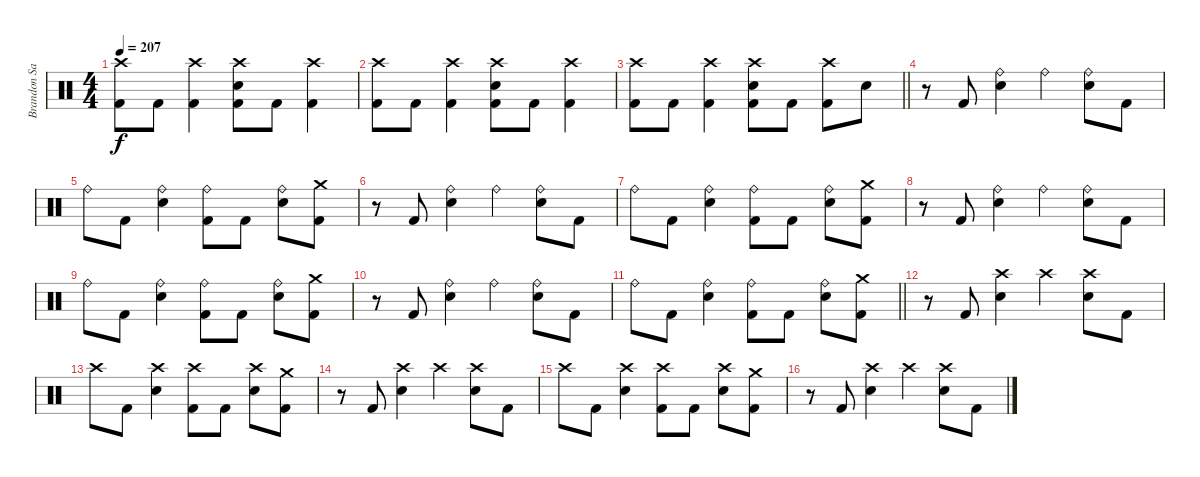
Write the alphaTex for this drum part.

\track ("Brandon Saller" "Brandon Sa") {instrument percussion}
\staff {score}
\articulation defaults
\ts (4 4)
\tempo 207
\clef neutral
\ks c
("Crash high (hit)" "Kick (hit) 2").8{dy f} "Kick (hit) 2".8 ("Crash high (hit)" "Kick (hit) 2").4 ("Crash high (hit)" "Electric Snare (hit)" "Kick (hit) 2").8 "Kick (hit) 2".8 ("Crash high (hit)" "Kick (hit) 2").4 |
("Crash high (hit)" "Kick (hit) 2").8 "Kick (hit) 2".8 ("Crash high (hit)" "Kick (hit) 2").4 ("Crash high (hit)" "Electric Snare (hit)" "Kick (hit) 2").8 "Kick (hit) 2".8 ("Crash high (hit)" "Kick (hit) 2").4 |
\barLineRight lightlight
("Crash high (hit)" "Kick (hit) 2").8 "Kick (hit) 2".8 ("Crash high (hit)" "Kick (hit) 2").4 ("Crash high (hit)" "Electric Snare (hit)" "Kick (hit) 2").8 "Kick (hit) 2".8 ("Crash high (hit)" "Kick (hit) 2").8 "Electric Snare (hit)".8 |
r.8 "Kick (hit) 2".8 ("Ride (bell)" "Electric Snare (hit)").4 "Ride (bell)".4 ("Ride (bell)" "Electric Snare (hit)").8 "Kick (hit) 2".8 |
"Ride (bell)".8 "Kick (hit) 2".8 ("Ride (bell)" "Electric Snare (hit)").4 ("Ride (bell)" "Kick (hit) 2").8 "Kick (hit) 2".8 ("Ride (bell)" "Electric Snare (hit)").8 ("Crash medium (hit)" "Kick (hit) 2").8 |
r.8 "Kick (hit) 2".8 ("Ride (bell)" "Electric Snare (hit)").4 "Ride (bell)".4 ("Ride (bell)" "Electric Snare (hit)").8 "Kick (hit) 2".8 |
"Ride (bell)".8 "Kick (hit) 2".8 ("Ride (bell)" "Electric Snare (hit)").4 ("Ride (bell)" "Kick (hit) 2").8 "Kick (hit) 2".8 ("Ride (bell)" "Electric Snare (hit)").8 ("Crash medium (hit)" "Kick (hit) 2").8 |
r.8 "Kick (hit) 2".8 ("Ride (bell)" "Electric Snare (hit)").4 "Ride (bell)".4 ("Ride (bell)" "Electric Snare (hit)").8 "Kick (hit) 2".8 |
"Ride (bell)".8 "Kick (hit) 2".8 ("Ride (bell)" "Electric Snare (hit)").4 ("Ride (bell)" "Kick (hit) 2").8 "Kick (hit) 2".8 ("Ride (bell)" "Electric Snare (hit)").8 ("Crash medium (hit)" "Kick (hit) 2").8 |
r.8 "Kick (hit) 2".8 ("Ride (bell)" "Electric Snare (hit)").4 "Ride (bell)".4 ("Ride (bell)" "Electric Snare (hit)").8 "Kick (hit) 2".8 |
\barLineRight lightlight "Ride (bell)".8 "Kick (hit) 2".8
("Ride (bell)" "Electric Snare (hit)").4 ("Ride (bell)" "Kick (hit) 2").8 "Kick (hit) 2".8 ("Ride (bell)" "Electric Snare (hit)").8 ("Crash medium (hit)" "Kick (hit) 2").8 |
r.8 "Kick (hit) 2".8 ("Crash high (hit)" "Electric Snare (hit)").4 "Crash high (hit)".4 ("Crash high (hit)" "Electric Snare (hit)").8 "Kick (hit) 2".8 |
"Crash high (hit)".8 "Kick (hit) 2".8 ("Crash high (hit)" "Electric Snare (hit)").4 ("Crash high (hit)" "Kick (hit) 2").8 "Kick (hit) 2".8 ("Crash high (hit)" "Electric Snare (hit)").8 ("Crash medium (hit)" "Kick (hit) 2").8 |
r.8 "Kick (hit) 2".8 ("Crash high (hit)" "Electric Snare (hit)").4 "Crash high (hit)".4 ("Crash high (hit)" "Electric Snare (hit)").8 "Kick (hit) 2".8 |
"Crash high (hit)".8 "Kick (hit) 2".8 ("Crash high (hit)" "Electric Snare (hit)").4 ("Crash high (hit)" "Kick (hit) 2").8 "Kick (hit) 2".8 ("Crash high (hit)" "Electric Snare (hit)").8 ("Crash medium (hit)" "Kick (hit) 2").8 |
r.8 "Kick (hit) 2".8 ("Crash high (hit)" "Electric Snare (hit)").4 "Crash high (hit)".4 ("Crash high (hit)" "Electric Snare (hit)").8 "Kick (hit) 2".8
